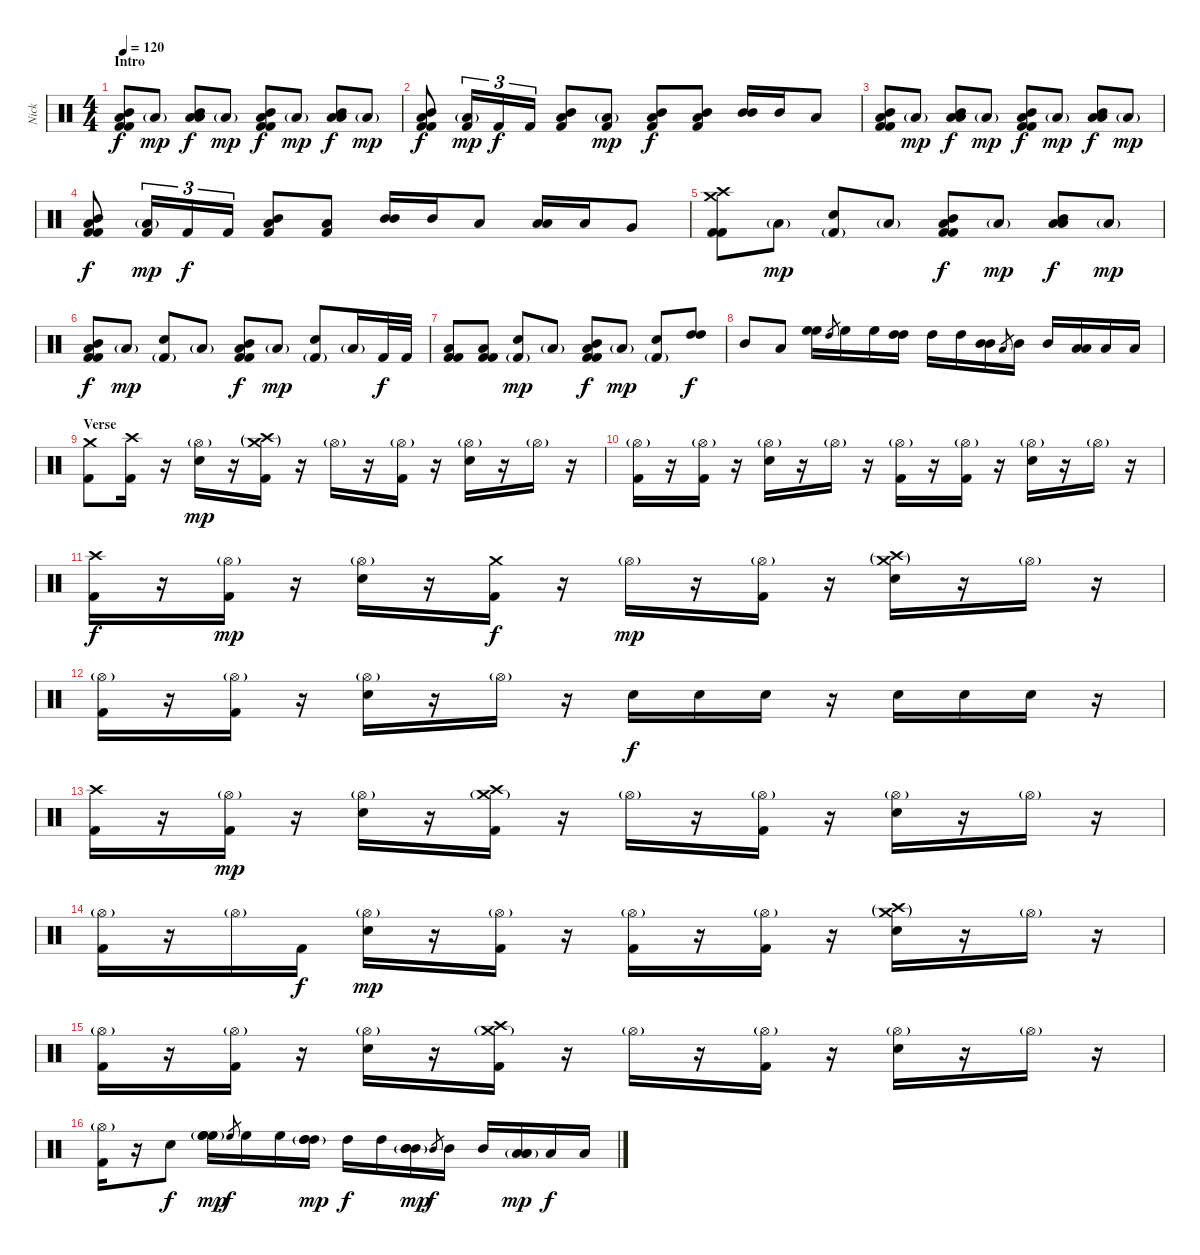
\track ("Nick" "Nick") {instrument percussion}
\staff {score}
\articulation defaults
\ts (4 4)
\section ("" "Intro")
\tempo 120
\clef neutral
\ks c
("Low Tom (hit)" "Mid Tom (hit)" "Kick (hit) 2" "Kick (hit) 2").8{dy f} "Low Tom (hit)"{g}.8{dy mp} ("Low Tom (hit)" "Mid Tom (hit)" "Low Floor Tom (hit)").8{dy f} "Low Tom (hit)"{g}.8{dy mp} ("Low Tom (hit)" "Mid Tom (hit)" "Kick (hit) 2" "Kick (hit) 2").8{dy f} "Low Tom (hit)"{g}.8{dy mp} ("Low Tom (hit)" "Mid Tom (hit)" "Low Floor Tom (hit)").8{dy f} "Low Tom (hit)"{g}.8{dy mp} |
("Low Tom (hit)" "Mid Tom (hit)" "Kick (hit) 2" "Kick (hit) 2").8{dy f} ("Low Tom (hit)"{g} "Kick (hit) 2").16{tu (3 2) dy mp} "Kick (hit) 2".16{tu (3 2) dy f} "Kick (hit) 2".16{tu (3 2)} ("Low Tom (hit)" "Mid Tom (hit)" "Kick (hit) 2").8 ("Low Tom (hit)"{g} "Kick (hit) 2").8{dy mp} ("Low Tom (hit)" "Mid Tom (hit)" "Kick (hit) 2").8{dy f} ("Low Tom (hit)" "Mid Tom (hit)" "Kick (hit) 2").8 ("Mid Tom (hit)" "Mid Tom (hit)").16 "Mid Tom (hit)".16 "Low Tom (hit)".8 |
("Low Tom (hit)" "Mid Tom (hit)" "Kick (hit) 2" "Kick (hit) 2").8 "Low Tom (hit)"{g}.8{dy mp} ("Low Tom (hit)" "Mid Tom (hit)" "Low Floor Tom (hit)").8{dy f} "Low Tom (hit)"{g}.8{dy mp} ("Low Tom (hit)" "Mid Tom (hit)" "Kick (hit) 2" "Kick (hit) 2").8{dy f} "Low Tom (hit)"{g}.8{dy mp} ("Low Tom (hit)" "Mid Tom (hit)" "Low Floor Tom (hit)").8{dy f} "Low Tom (hit)"{g}.8{dy mp} |
("Low Tom (hit)" "Mid Tom (hit)" "Kick (hit) 2" "Kick (hit) 2").8{dy f} ("Low Tom (hit)"{g} "Kick (hit) 2").16{tu (3 2) dy mp} "Kick (hit) 2".16{tu (3 2) dy f} "Kick (hit) 2".16{tu (3 2)} ("Low Tom (hit)" "Mid Tom (hit)" "Kick (hit) 2").8 ("Low Tom (hit)" "Kick (hit) 2").8 ("Mid Tom (hit)" "Mid Tom (hit)").16 "Mid Tom (hit)".16 "Low Tom (hit)".8 ("Low Tom (hit)" "Low Tom (hit)").16 "Low Tom (hit)".16 "Very Low Tom (hit)".8 |
("Crash high (hit)" "Crash medium (hit)" "Kick (hit) 2" "Kick (hit) 2").8 "Low Tom (hit)"{g}.8{dy mp} ("Electric Snare (hit)" "Kick (hit) 2"{g}).8 "Low Tom (hit)"{g}.8 ("Low Tom (hit)" "Mid Tom (hit)" "Kick (hit) 2" "Kick (hit) 2").8{dy f} "Low Tom (hit)"{g}.8{dy mp} ("Low Tom (hit)" "Mid Tom (hit)" "Low Floor Tom (hit)").8{dy f} "Low Tom (hit)"{g}.8{dy mp} |
("Low Tom (hit)" "Mid Tom (hit)" "Kick (hit) 2" "Kick (hit) 2").8{dy f} "Low Tom (hit)"{g}.8{dy mp} ("Electric Snare (hit)" "Kick (hit) 2"{g}).8 "Low Tom (hit)"{g}.8 ("Low Tom (hit)" "Mid Tom (hit)" "Kick (hit) 2" "Kick (hit) 2").8{dy f} "Low Tom (hit)"{g}.8{dy mp} ("Electric Snare (hit)" "Kick (hit) 2"{g}).8 "Low Tom (hit)"{g}.16 "Kick (hit) 2".32{dy f} "Kick (hit) 2".32 |
("Low Tom (hit)" "Kick (hit) 2" "Kick (hit) 2").8 ("Low Tom (hit)" "Kick (hit) 2" "Kick (hit) 2").8 ("Electric Snare (hit)" "Kick (hit) 2"{g}).8{dy mp} "Low Tom (hit)"{g}.8 ("Low Tom (hit)" "Mid Tom (hit)" "Kick (hit) 2" "Kick (hit) 2").8{dy f} "Low Tom (hit)"{g}.8{dy mp} ("Electric Snare (hit)" "Kick (hit) 2"{g}).8 ("High Tom (hit)" "High Tom (hit)").8{dy f} |
"Mid Tom (hit)".8 "Low Tom (hit)".8 ("High Floor Tom (hit)" "High Floor Tom (hit)").16 "High Tom (hit)".8{gr} "High Floor Tom (hit)".16 "High Floor Tom (hit)".16 ("High Tom (hit)" "High Tom (hit)").16 "High Tom (hit)".16 "High Tom (hit)".16 ("Mid Tom (hit)" "Mid Tom (hit)").16 "Low Tom (hit)".8{gr} "Mid Tom (hit)".16 "Mid Tom (hit)".16 ("Low Tom (hit)" "Low Tom (hit)").16 "Low Tom (hit)".16 "Low Tom (hit)".16 |
\section ("" "Verse")
("Crash medium (hit)" "Kick (hit) 2").8 ("Crash high (hit)" "Kick (hit) 2").16 r.16 ("Hi-Hat (open)"{g} "Electric Snare (hit)").16{dy mp} r.16 ("Crash medium (hit)"{g} "Crash high (hit)"{g} "Kick (hit) 2").16 r.16 "Hi-Hat (open)"{g}.16 r.16 ("Hi-Hat (open)"{g} "Kick (hit) 2").16 r.16 ("Hi-Hat (open)"{g} "Electric Snare (hit)").16 r.16 "Hi-Hat (open)"{g}.16 r.16 |
("Hi-Hat (open)"{g} "Kick (hit) 2").16 r.16 ("Hi-Hat (open)"{g} "Kick (hit) 2").16 r.16 ("Hi-Hat (open)"{g} "Electric Snare (hit)").16 r.16 "Hi-Hat (open)"{g}.16 r.16 ("Hi-Hat (open)"{g} "Kick (hit) 2").16 r.16 ("Hi-Hat (open)"{g} "Kick (hit) 2").16 r.16 ("Hi-Hat (open)"{g} "Electric Snare (hit)").16 r.16 "Hi-Hat (open)"{g}.16 r.16 |
("Crash high (hit)" "Kick (hit) 2").16{dy f} r.16 ("Hi-Hat (open)"{g} "Kick (hit) 2").16{dy mp} r.16 ("Hi-Hat (open)"{g} "Electric Snare (hit)").16 r.16 ("Crash medium (hit)" "Kick (hit) 2").16{dy f} r.16 "Hi-Hat (open)"{g}.16{dy mp} r.16 ("Hi-Hat (open)"{g} "Kick (hit) 2").16 r.16 ("Crash medium (hit)"{g} "Crash high (hit)"{g} "Electric Snare (hit)").16 r.16 "Hi-Hat (open)"{g}.16 r.16 |
("Hi-Hat (open)"{g} "Kick (hit) 2").16 r.16 ("Hi-Hat (open)"{g} "Kick (hit) 2").16 r.16 ("Hi-Hat (open)"{g} "Electric Snare (hit)").16 r.16 "Hi-Hat (open)"{g}.16 r.16 "Electric Snare (hit)".16{dy f} "Electric Snare (hit)".16 "Electric Snare (hit)".16 r.16 "Electric Snare (hit)".16 "Electric Snare (hit)".16 "Electric Snare (hit)".16 r.16 |
("Crash high (hit)" "Kick (hit) 2").16 r.16 ("Hi-Hat (open)"{g} "Kick (hit) 2").16{dy mp} r.16 ("Hi-Hat (open)"{g} "Electric Snare (hit)").16 r.16 ("Crash medium (hit)"{g} "Crash high (hit)" "Kick (hit) 2").16 r.16 "Hi-Hat (open)"{g}.16 r.16 ("Hi-Hat (open)"{g} "Kick (hit) 2").16 r.16 ("Hi-Hat (open)"{g} "Electric Snare (hit)").16 r.16 "Hi-Hat (open)"{g}.16 r.16 |
("Hi-Hat (open)"{g} "Kick (hit) 2").16 r.16 "Hi-Hat (open)"{g}.16 "Kick (hit) 2".16{dy f} ("Hi-Hat (open)"{g} "Electric Snare (hit)").16{dy mp} r.16 ("Hi-Hat (open)"{g} "Kick (hit) 2").16 r.16 ("Hi-Hat (open)"{g} "Kick (hit) 2").16 r.16 ("Hi-Hat (open)"{g} "Kick (hit) 2").16 r.16 ("Crash medium (hit)"{g} "Crash high (hit)"{g} "Electric Snare (hit)").16 r.16 "Hi-Hat (open)"{g}.16 r.16 |
("Hi-Hat (open)"{g} "Kick (hit) 2").16 r.16 ("Hi-Hat (open)"{g} "Kick (hit) 2").16 r.16 ("Hi-Hat (open)"{g} "Electric Snare (hit)").16 r.16 ("Crash medium (hit)"{g} "Crash high (hit)" "Kick (hit) 2").16 r.16 "Hi-Hat (open)"{g}.16 r.16 ("Hi-Hat (open)"{g} "Kick (hit) 2").16 r.16 ("Hi-Hat (open)"{g} "Electric Snare (hit)").16 r.16 "Hi-Hat (open)"{g}.16 r.16 |
("Hi-Hat (open)"{g} "Kick (hit) 2").16 r.16 "Electric Snare (hit)".8{dy f} ("High Floor Tom (hit)" "High Floor Tom (hit)" "High Floor Tom (hit)"{g}).16{dy mp} "High Floor Tom (hit)".8{gr dy f} "High Floor Tom (hit)".16 "High Floor Tom (hit)".16 ("High Tom (hit)" "High Tom (hit)" "High Tom (hit)"{g}).16{dy mp} "High Tom (hit)".16{dy f} "High Tom (hit)".16 ("Mid Tom (hit)" "Mid Tom (hit)" "Mid Tom (hit)"{g}).16{dy mp} "Mid Tom (hit)".8{gr dy f} "Mid Tom (hit)".16 "Mid Tom (hit)".16 ("Low Tom (hit)" "Low Tom (hit)" "Low Tom (hit)"{g}).16{dy mp} "Low Tom (hit)".16{dy f} "Low Tom (hit)".16
